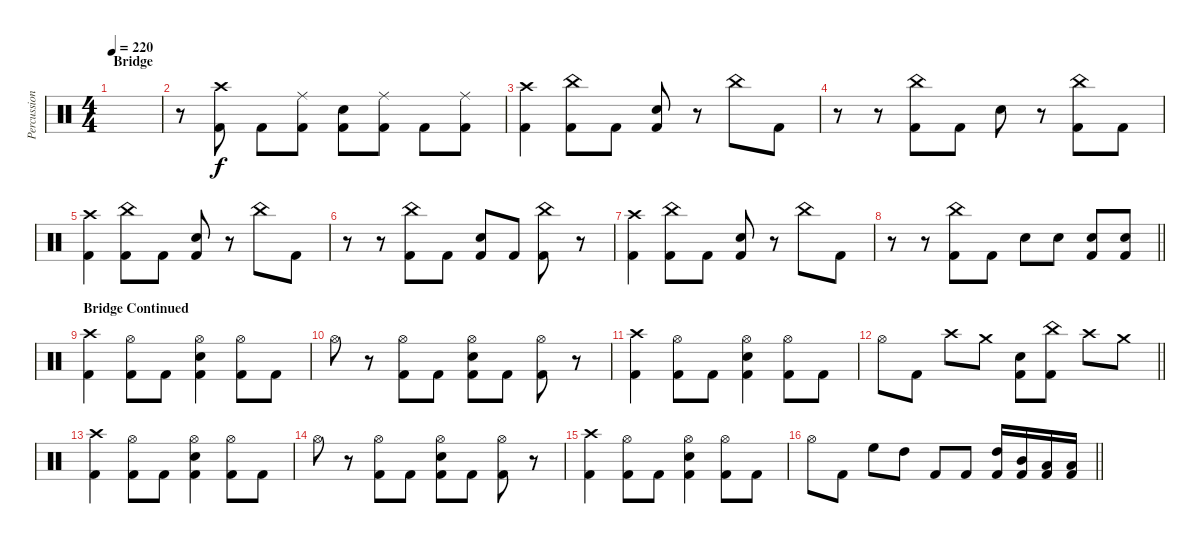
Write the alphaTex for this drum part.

\track ("Percussion" "Percussion") {instrument percussion}
\staff {score}
\articulation defaults
\ts (4 4)
\section ("" "Bridge ")
\tempo 220
\clef neutral
\ks c
|
r.8 ("Crash high (hit)" "Kick (hit) 2").8 "Kick (hit) 2".8 ("Ride (middle)" "Kick (hit) 2").8 ("Electric Snare (hit)" "Kick (hit) 2").8 ("Ride (middle)" "Kick (hit) 2").8 "Kick (hit) 2".8 ("Ride (middle)" "Kick (hit) 2").8 |
("Crash high (hit)" "Kick (hit) 2").4 ("China (hit)" "Kick (hit) 2").8 "Kick (hit) 2".8 ("Electric Snare (hit)" "Kick (hit) 2").8 r.8 "China (hit)".8 "Kick (hit) 2".8 |
r.8 r.8 ("China (hit)" "Kick (hit) 2").8 "Kick (hit) 2".8 "Electric Snare (hit)".8 r.8 ("China (hit)" "Kick (hit) 2").8 "Kick (hit) 2".8 |
("Crash high (hit)" "Kick (hit) 2").4 ("China (hit)" "Kick (hit) 2").8 "Kick (hit) 2".8 ("Electric Snare (hit)" "Kick (hit) 2").8 r.8 "China (hit)".8 "Kick (hit) 2".8 |
r.8 r.8 ("China (hit)" "Kick (hit) 2").8 "Kick (hit) 2".8 ("Electric Snare (hit)" "Kick (hit) 2").8 "Kick (hit) 2".8 ("China (hit)" "Kick (hit) 2").8 r.8 |
("Crash high (hit)" "Kick (hit) 2").4 ("China (hit)" "Kick (hit) 2").8 "Kick (hit) 2".8 ("Electric Snare (hit)" "Kick (hit) 2").8 r.8 "China (hit)".8 "Kick (hit) 2".8 |
\barLineRight lightlight
r.8 r.8 ("China (hit)" "Kick (hit) 2").8 "Kick (hit) 2".8 "Electric Snare (hit)".8 "Electric Snare (hit)".8 ("Electric Snare (hit)" "Kick (hit) 2").8 ("Electric Snare (hit)" "Kick (hit) 2").8 |
\section ("" "Bridge Continued")
("Crash high (hit)" "Kick (hit) 2").4 ("Hi-Hat (open)" "Kick (hit) 2").8 "Kick (hit) 2".8 ("Hi-Hat (open)" "Electric Snare (hit)" "Kick (hit) 2").4 ("Hi-Hat (open)" "Kick (hit) 2").8 "Kick (hit) 2".8 |
"Hi-Hat (open)".8 r.8 ("Hi-Hat (open)" "Kick (hit) 2").8 "Kick (hit) 2".8 ("Hi-Hat (open)" "Electric Snare (hit)" "Kick (hit) 2").8 "Kick (hit) 2".8 ("Hi-Hat (open)" "Kick (hit) 2").8 r.8 |
("Crash high (hit)" "Kick (hit) 2").4 ("Hi-Hat (open)" "Kick (hit) 2").8 "Kick (hit) 2".8 ("Hi-Hat (open)" "Electric Snare (hit)" "Kick (hit) 2").4 ("Hi-Hat (open)" "Kick (hit) 2").8 "Kick (hit) 2".8 |
\barLineRight lightlight "Hi-Hat (open)".8 "Kick (hit) 2".8 "Crash high (hit)".8 "Crash medium (hit)".8
("Electric Snare (hit)" "Kick (hit) 2").8 ("China (hit)" "Kick (hit) 2").8 "Crash high (hit)".8 "Crash medium (hit)".8 |
("Crash high (hit)" "Kick (hit) 2").4 ("Hi-Hat (open)" "Kick (hit) 2").8 "Kick (hit) 2".8 ("Hi-Hat (open)" "Electric Snare (hit)" "Kick (hit) 2").4 ("Hi-Hat (open)" "Kick (hit) 2").8 "Kick (hit) 2".8 |
"Hi-Hat (open)".8 r.8 ("Hi-Hat (open)" "Kick (hit) 2").8 "Kick (hit) 2".8 ("Hi-Hat (open)" "Electric Snare (hit)" "Kick (hit) 2").8 "Kick (hit) 2".8 ("Hi-Hat (open)" "Kick (hit) 2").8 r.8 |
("Crash high (hit)" "Kick (hit) 2").4 ("Hi-Hat (open)" "Kick (hit) 2").8 "Kick (hit) 2".8 ("Hi-Hat (open)" "Electric Snare (hit)" "Kick (hit) 2").4 ("Hi-Hat (open)" "Kick (hit) 2").8 "Kick (hit) 2".8 |
\barLineRight lightlight "Hi-Hat (open)".8 "Kick (hit) 2".8 "High Floor Tom (hit)".8 "High Tom (hit)".8 "Kick (hit) 2".8 "Kick (hit) 2".8
("High Tom (hit)" "Kick (hit) 2").16 ("Mid Tom (hit)" "Kick (hit) 2").16 ("Low Tom (hit)" "Kick (hit) 2").16 ("Low Floor Tom (hit)" "Kick (hit) 2").16
